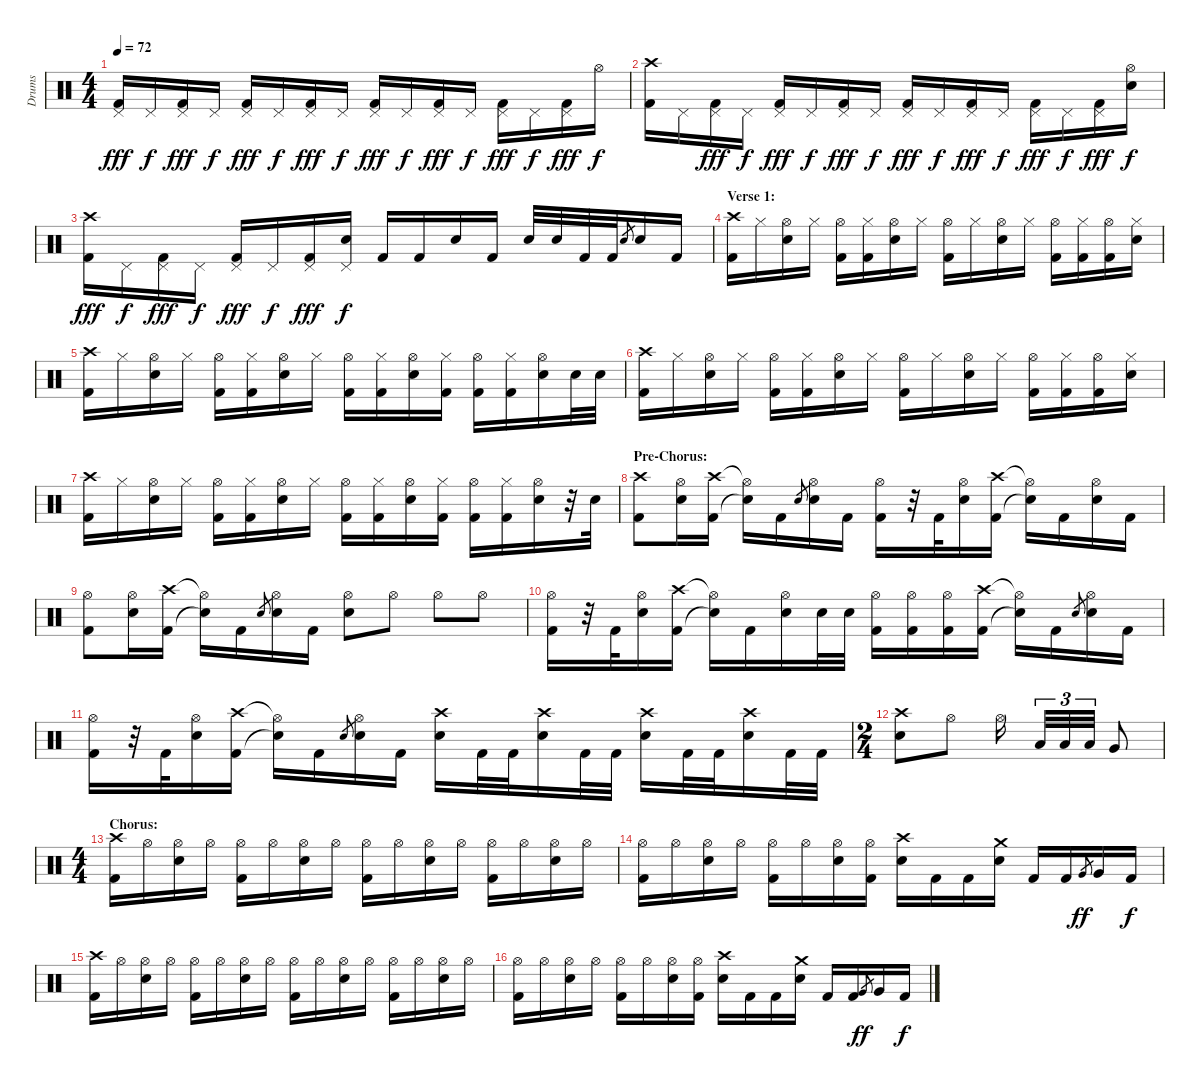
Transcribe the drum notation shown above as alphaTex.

\track ("Drums" "Drums") {instrument percussion}
\staff {score}
\articulation defaults
\ts (4 4)
\tempo 72
\clef neutral
\ks c
("Pedal Hi-Hat (hit)" "Kick (hit) 2").16{dy fff} "Pedal Hi-Hat (hit)".16{dy f} ("Pedal Hi-Hat (hit)" "Kick (hit) 2").16{dy fff} "Pedal Hi-Hat (hit)".16{dy f} ("Pedal Hi-Hat (hit)" "Kick (hit) 2").16{dy fff} "Pedal Hi-Hat (hit)".16{dy f} ("Pedal Hi-Hat (hit)" "Kick (hit) 2").16{dy fff} "Pedal Hi-Hat (hit)".16{dy f} ("Pedal Hi-Hat (hit)" "Kick (hit) 2").16{dy fff} "Pedal Hi-Hat (hit)".16{dy f} ("Pedal Hi-Hat (hit)" "Kick (hit) 2").16{dy fff} "Pedal Hi-Hat (hit)".16{dy f} ("Pedal Hi-Hat (hit)" "Kick (hit) 2").16{dy fff} "Pedal Hi-Hat (hit)".16{dy f} ("Pedal Hi-Hat (hit)" "Kick (hit) 2").16{dy fff} "Hi-Hat (open)".16{dy f} |
("Crash high (hit)" "Kick (hit) 2").16 "Pedal Hi-Hat (hit)".16 ("Pedal Hi-Hat (hit)" "Kick (hit) 2").16{dy fff} "Pedal Hi-Hat (hit)".16{dy f} ("Pedal Hi-Hat (hit)" "Kick (hit) 2").16{dy fff} "Pedal Hi-Hat (hit)".16{dy f} ("Pedal Hi-Hat (hit)" "Kick (hit) 2").16{dy fff} "Pedal Hi-Hat (hit)".16{dy f} ("Pedal Hi-Hat (hit)" "Kick (hit) 2").16{dy fff} "Pedal Hi-Hat (hit)".16{dy f} ("Pedal Hi-Hat (hit)" "Kick (hit) 2").16{dy fff} "Pedal Hi-Hat (hit)".16{dy f} ("Pedal Hi-Hat (hit)" "Kick (hit) 2").16{dy fff} "Pedal Hi-Hat (hit)".16{dy f} ("Pedal Hi-Hat (hit)" "Kick (hit) 2").16{dy fff} ("Hi-Hat (open)" "Snare (hit) 2").16{dy f} |
("Crash high (hit)" "Kick (hit) 2").16{dy fff} "Pedal Hi-Hat (hit)".16{dy f} ("Pedal Hi-Hat (hit)" "Kick (hit) 2").16{dy fff} "Pedal Hi-Hat (hit)".16{dy f} ("Pedal Hi-Hat (hit)" "Kick (hit) 2").16{dy fff} "Pedal Hi-Hat (hit)".16{dy f} ("Pedal Hi-Hat (hit)" "Kick (hit) 2").16{dy fff} ("Pedal Hi-Hat (hit)" "Snare (hit) 2").16{dy f} "Kick (hit) 2".16 "Kick (hit) 2".16 "Snare (hit) 2".16 "Kick (hit) 2".16 "Snare (hit) 2".32 "Snare (hit) 2".32 "Kick (hit) 2".32 "Kick (hit) 2".32 "Snare (hit) 2".8{gr} "Snare (hit) 2".16 "Kick (hit) 2".16 |
\section ("" "Verse 1:")
("Crash high (hit)" "Kick (hit) 2").16 "Hi-Hat (closed)".16 ("Hi-Hat (open)" "Snare (hit) 2").16 "Hi-Hat (closed)".16 ("Hi-Hat (open)" "Kick (hit) 2").16 ("Hi-Hat (closed)" "Kick (hit) 2").16 ("Hi-Hat (open)" "Snare (hit) 2").16 "Hi-Hat (closed)".16 ("Hi-Hat (open)" "Kick (hit) 2").16 "Hi-Hat (closed)".16 ("Hi-Hat (open)" "Snare (hit) 2").16 "Hi-Hat (closed)".16 ("Hi-Hat (open)" "Kick (hit) 2").16 ("Hi-Hat (closed)" "Kick (hit) 2").16 ("Hi-Hat (open)" "Kick (hit) 2").16 ("Hi-Hat (closed)" "Snare (hit) 2").16 |
("Crash high (hit)" "Kick (hit) 2").16 "Hi-Hat (closed)".16 ("Hi-Hat (open)" "Snare (hit) 2").16 "Hi-Hat (closed)".16 ("Hi-Hat (open)" "Kick (hit) 2").16 ("Hi-Hat (closed)" "Kick (hit) 2").16 ("Hi-Hat (open)" "Snare (hit) 2").16 "Hi-Hat (closed)".16 ("Hi-Hat (open)" "Kick (hit) 2").16 ("Hi-Hat (closed)" "Kick (hit) 2").16 ("Hi-Hat (open)" "Snare (hit) 2").16 ("Hi-Hat (closed)" "Kick (hit) 2").16 ("Hi-Hat (open)" "Kick (hit) 2").16 ("Hi-Hat (closed)" "Kick (hit) 2").16 ("Hi-Hat (open)" "Snare (hit) 2").16 "Snare (hit) 2".32 "Snare (hit) 2".32 |
("Crash high (hit)" "Kick (hit) 2").16 "Hi-Hat (closed)".16 ("Hi-Hat (open)" "Snare (hit) 2").16 "Hi-Hat (closed)".16 ("Hi-Hat (open)" "Kick (hit) 2").16 ("Hi-Hat (closed)" "Kick (hit) 2").16 ("Hi-Hat (open)" "Snare (hit) 2").16 "Hi-Hat (closed)".16 ("Hi-Hat (open)" "Kick (hit) 2").16 "Hi-Hat (closed)".16 ("Hi-Hat (open)" "Snare (hit) 2").16 "Hi-Hat (closed)".16 ("Hi-Hat (open)" "Kick (hit) 2").16 ("Hi-Hat (closed)" "Kick (hit) 2").16 ("Hi-Hat (open)" "Kick (hit) 2").16 ("Hi-Hat (closed)" "Snare (hit) 2").16 |
("Crash high (hit)" "Kick (hit) 2").16 "Hi-Hat (closed)".16 ("Hi-Hat (open)" "Snare (hit) 2").16 "Hi-Hat (closed)".16 ("Hi-Hat (open)" "Kick (hit) 2").16 ("Hi-Hat (closed)" "Kick (hit) 2").16 ("Hi-Hat (open)" "Snare (hit) 2").16 "Hi-Hat (closed)".16 ("Hi-Hat (open)" "Kick (hit) 2").16 ("Hi-Hat (closed)" "Kick (hit) 2").16 ("Hi-Hat (open)" "Snare (hit) 2").16 ("Hi-Hat (closed)" "Kick (hit) 2").16 ("Hi-Hat (open)" "Kick (hit) 2").16 ("Hi-Hat (closed)" "Kick (hit) 2").16 ("Hi-Hat (open)" "Snare (hit) 2").16 r.32 "Snare (hit) 2".32 |
\section ("" "Pre-Chorus:")
("Crash high (hit)" "Kick (hit) 2").8 ("Hi-Hat (open)" "Snare (hit) 2").16 ("Crash high (hit)" "Kick (hit) 2").16 ("Hi-Hat (open)"{t} "Snare (hit)"{t}).16 "Kick (hit) 2".16 "Snare (hit) 2".8{gr} ("Hi-Hat (open)" "Snare (hit) 2").16 "Kick (hit) 2".16 ("Hi-Hat (open)" "Kick (hit) 2").16 r.32 "Kick (hit) 2".32 ("Hi-Hat (open)" "Snare (hit) 2").16 ("Crash high (hit)" "Kick (hit) 2").16 ("Hi-Hat (open)"{t} "Snare (hit)"{t}).16 "Kick (hit) 2".16 ("Hi-Hat (open)" "Snare (hit) 2").16 "Kick (hit) 2".16 |
("Hi-Hat (open)" "Kick (hit) 2").8 ("Hi-Hat (open)" "Snare (hit) 2").16 ("Crash high (hit)" "Kick (hit) 2").16 ("Hi-Hat (open)"{t} "Snare (hit)"{t}).16 "Kick (hit) 2".16 "Snare (hit) 2".8{gr} ("Hi-Hat (open)" "Snare (hit) 2").16 "Kick (hit) 2".16 ("Hi-Hat (open)" "Snare (hit) 2").8 "Hi-Hat (open)".8 "Hi-Hat (open)".8 "Hi-Hat (open)".8 |
("Hi-Hat (open)" "Kick (hit) 2").16 r.32 "Kick (hit) 2".32 ("Hi-Hat (open)" "Snare (hit) 2").16 ("Crash high (hit)" "Kick (hit) 2").16 ("Hi-Hat (open)"{t} "Snare (hit)"{t}).16 "Kick (hit) 2".16 ("Hi-Hat (open)" "Snare (hit) 2").16 "Snare (hit) 2".32 "Snare (hit) 2".32 ("Hi-Hat (open)" "Kick (hit) 2").16 ("Hi-Hat (open)" "Kick (hit) 2").16 ("Hi-Hat (open)" "Kick (hit) 2").16 ("Crash high (hit)" "Kick (hit) 2").16 ("Hi-Hat (open)"{t} "Snare (hit)"{t}).16 "Kick (hit) 2".16 "Snare (hit) 2".8{gr} ("Hi-Hat (open)" "Snare (hit) 2").16 "Kick (hit) 2".16 |
("Hi-Hat (open)" "Kick (hit) 2").16 r.32 "Kick (hit) 2".32 ("Hi-Hat (open)" "Snare (hit) 2").16 ("Crash high (hit)" "Kick (hit) 2").16 ("Hi-Hat (open)"{t} "Snare (hit)"{t}).16 "Kick (hit) 2".16 "Snare (hit) 2".8{gr} ("Hi-Hat (open)" "Snare (hit) 2").16 "Kick (hit) 2".16 ("Crash high (hit)" "Snare (hit) 2").16 "Kick (hit) 2".32 "Kick (hit) 2".32 ("Crash high (hit)" "Snare (hit) 2").16 "Kick (hit) 2".32 "Kick (hit) 2".32 ("Crash high (hit)" "Snare (hit) 2").16 "Kick (hit) 2".32 "Kick (hit) 2".32 ("Crash high (hit)" "Snare (hit) 2").16 "Kick (hit) 2".32 "Kick (hit) 2".32 |
\ts (2 4)
("Crash high (hit)" "Snare (hit) 2").8 "Hi-Hat (open)".8 "Hi-Hat (open)".16 "Low Tom (hit)".32{tu (3 2)} "Low Tom (hit)".32{tu (3 2)} "Low Tom (hit)".32{tu (3 2)} "Very Low Tom (hit)".8 |
\ts (4 4)
\section ("" "Chorus:")
("Crash high (hit)" "Kick (hit) 2").16 "Hi-Hat (open)".16 ("Hi-Hat (open)" "Snare (hit) 2").16 "Hi-Hat (open)".16 ("Hi-Hat (open)" "Kick (hit) 2").16 "Hi-Hat (open)".16 ("Hi-Hat (open)" "Snare (hit) 2").16 "Hi-Hat (open)".16 ("Hi-Hat (open)" "Kick (hit) 2").16 "Hi-Hat (open)".16 ("Hi-Hat (open)" "Snare (hit) 2").16 "Hi-Hat (open)".16 ("Hi-Hat (open)" "Kick (hit) 2").16 "Hi-Hat (open)".16 ("Hi-Hat (open)" "Snare (hit) 2").16 "Hi-Hat (open)".16 |
("Hi-Hat (open)" "Kick (hit) 2").16 "Hi-Hat (open)".16 ("Hi-Hat (open)" "Snare (hit) 2").16 "Hi-Hat (open)".16 ("Hi-Hat (open)" "Kick (hit) 2").16 "Hi-Hat (open)".16 ("Hi-Hat (open)" "Snare (hit) 2").16 ("Hi-Hat (open)" "Kick (hit) 2").16 ("Crash high (hit)" "Snare (hit) 2").16 "Kick (hit) 2".16 "Kick (hit) 2".16 ("Crash medium (hit)" "Snare (hit) 2").16 "Kick (hit) 2".16 "Kick (hit) 2".16 "Very Low Tom (hit)".8{gr dy ff} "Very Low Tom (hit)".16 "Kick (hit) 2".16{dy f} |
("Crash high (hit)" "Kick (hit) 2").16 "Hi-Hat (open)".16 ("Hi-Hat (open)" "Snare (hit) 2").16 "Hi-Hat (open)".16 ("Hi-Hat (open)" "Kick (hit) 2").16 "Hi-Hat (open)".16 ("Hi-Hat (open)" "Snare (hit) 2").16 "Hi-Hat (open)".16 ("Hi-Hat (open)" "Kick (hit) 2").16 "Hi-Hat (open)".16 ("Hi-Hat (open)" "Snare (hit) 2").16 "Hi-Hat (open)".16 ("Hi-Hat (open)" "Kick (hit) 2").16 "Hi-Hat (open)".16 ("Hi-Hat (open)" "Snare (hit) 2").16 "Hi-Hat (open)".16 |
("Hi-Hat (open)" "Kick (hit) 2").16 "Hi-Hat (open)".16 ("Hi-Hat (open)" "Snare (hit) 2").16 "Hi-Hat (open)".16 ("Hi-Hat (open)" "Kick (hit) 2").16 "Hi-Hat (open)".16 ("Hi-Hat (open)" "Snare (hit) 2").16 ("Hi-Hat (open)" "Kick (hit) 2").16 ("Crash high (hit)" "Snare (hit) 2").16 "Kick (hit) 2".16 "Kick (hit) 2".16 ("Crash medium (hit)" "Snare (hit) 2").16 "Kick (hit) 2".16 "Kick (hit) 2".16 "Very Low Tom (hit)".8{gr dy ff} "Very Low Tom (hit)".16 "Kick (hit) 2".16{dy f}
